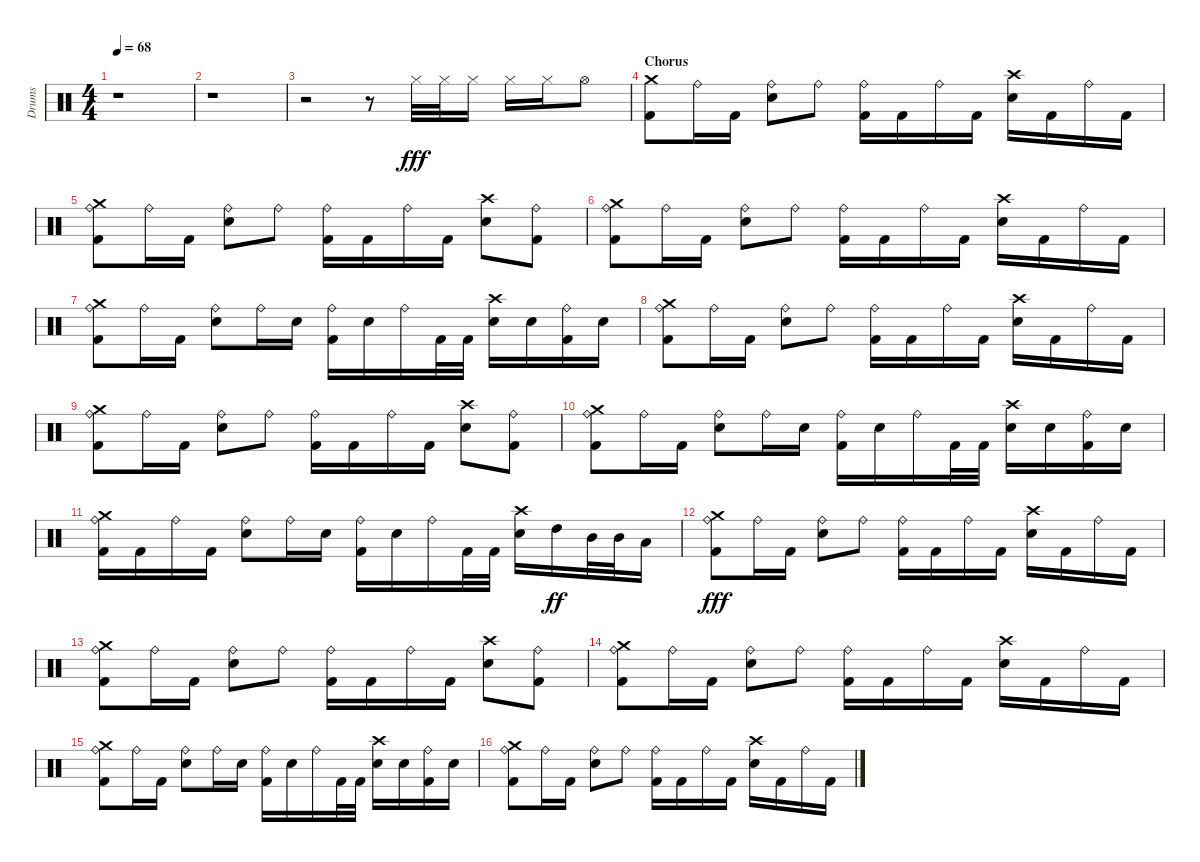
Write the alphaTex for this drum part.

\track ("Drums" "Drums") {instrument percussion}
\staff {score}
\articulation defaults
\ts (4 4)
\tempo 68
\clef neutral
\ks c
r.1{dy fff} |
r.1 |
r.2 r.8 "Hi-Hat (closed)".32 "Hi-Hat (closed)".32 "Hi-Hat (closed)".16 "Hi-Hat (closed)".16 "Hi-Hat (closed)".16 "Hi-Hat (open)".8 |
\section ("" "Chorus")
("Crash medium (hit)" "Kick (hit) 2").8 "Ride (bell)".16 "Kick (hit) 2".16 ("Ride (bell)" "Electric Snare (hit)").8 "Ride (bell)".8 ("Ride (bell)" "Kick (hit) 2").16 "Kick (hit) 2".16 "Ride (bell)".16 "Kick (hit) 2".16 ("Crash high (hit)" "Electric Snare (hit)").16 "Kick (hit) 2".16 "Ride (bell)".16 "Kick (hit) 2".16 |
("Crash medium (hit)" "Ride (bell)" "Kick (hit) 2").8 "Ride (bell)".16 "Kick (hit) 2".16 ("Ride (bell)" "Electric Snare (hit)").8 "Ride (bell)".8 ("Ride (bell)" "Kick (hit) 2").16 "Kick (hit) 2".16 "Ride (bell)".16 "Kick (hit) 2".16 ("Crash high (hit)" "Electric Snare (hit)").8 ("Ride (bell)" "Kick (hit) 2").8 |
("Crash medium (hit)" "Ride (bell)" "Kick (hit) 2").8 "Ride (bell)".16 "Kick (hit) 2".16 ("Ride (bell)" "Electric Snare (hit)").8 "Ride (bell)".8 ("Ride (bell)" "Kick (hit) 2").16 "Kick (hit) 2".16 "Ride (bell)".16 "Kick (hit) 2".16 ("Crash high (hit)" "Electric Snare (hit)").16 "Kick (hit) 2".16 "Ride (bell)".16 "Kick (hit) 2".16 |
("Crash medium (hit)" "Ride (bell)" "Kick (hit) 2").8 "Ride (bell)".16 "Kick (hit) 2".16 ("Ride (bell)" "Electric Snare (hit)").8 "Ride (bell)".16 "Electric Snare (hit)".16 ("Ride (bell)" "Kick (hit) 2").16 "Electric Snare (hit)".16 "Ride (bell)".16 "Kick (hit) 2".32 "Kick (hit) 2".32 ("Crash high (hit)" "Electric Snare (hit)").16 "Electric Snare (hit)".16 ("Ride (bell)" "Kick (hit) 2").16 "Electric Snare (hit)".16 |
("Crash medium (hit)" "Ride (bell)" "Kick (hit) 2").8 "Ride (bell)".16 "Kick (hit) 2".16 ("Ride (bell)" "Electric Snare (hit)").8 "Ride (bell)".8 ("Ride (bell)" "Kick (hit) 2").16 "Kick (hit) 2".16 "Ride (bell)".16 "Kick (hit) 2".16 ("Crash high (hit)" "Electric Snare (hit)").16 "Kick (hit) 2".16 "Ride (bell)".16 "Kick (hit) 2".16 |
("Crash medium (hit)" "Ride (bell)" "Kick (hit) 2").8 "Ride (bell)".16 "Kick (hit) 2".16 ("Ride (bell)" "Electric Snare (hit)").8 "Ride (bell)".8 ("Ride (bell)" "Kick (hit) 2").16 "Kick (hit) 2".16 "Ride (bell)".16 "Kick (hit) 2".16 ("Crash high (hit)" "Electric Snare (hit)").8 ("Ride (bell)" "Kick (hit) 2").8 |
("Crash medium (hit)" "Ride (bell)" "Kick (hit) 2").8 "Ride (bell)".16 "Kick (hit) 2".16 ("Ride (bell)" "Electric Snare (hit)").8 "Ride (bell)".16 "Electric Snare (hit)".16 ("Ride (bell)" "Kick (hit) 2").16 "Electric Snare (hit)".16 "Ride (bell)".16 "Kick (hit) 2".32 "Kick (hit) 2".32 ("Crash high (hit)" "Electric Snare (hit)").16 "Electric Snare (hit)".16 ("Ride (bell)" "Kick (hit) 2").16 "Electric Snare (hit)".16 |
("Crash medium (hit)" "Ride (bell)" "Kick (hit) 2").16 "Kick (hit) 2".16 "Ride (bell)".16 "Kick (hit) 2".16 ("Ride (bell)" "Electric Snare (hit)").8 "Ride (bell)".16 "Electric Snare (hit)".16 ("Ride (bell)" "Kick (hit) 2").16 "Electric Snare (hit)".16 "Ride (bell)".16 "Kick (hit) 2".32 "Kick (hit) 2".32 ("Crash high (hit)" "Electric Snare (hit)").16 "High Tom (hit)".16{dy ff} "Mid Tom (hit)".32 "Mid Tom (hit)".32 "Low Tom (hit)".16 |
("Crash medium (hit)" "Ride (bell)" "Kick (hit) 2").8{dy fff} "Ride (bell)".16 "Kick (hit) 2".16 ("Ride (bell)" "Electric Snare (hit)").8 "Ride (bell)".8 ("Ride (bell)" "Kick (hit) 2").16 "Kick (hit) 2".16 "Ride (bell)".16 "Kick (hit) 2".16 ("Crash high (hit)" "Electric Snare (hit)").16 "Kick (hit) 2".16 "Ride (bell)".16 "Kick (hit) 2".16 |
("Crash medium (hit)" "Ride (bell)" "Kick (hit) 2").8 "Ride (bell)".16 "Kick (hit) 2".16 ("Ride (bell)" "Electric Snare (hit)").8 "Ride (bell)".8 ("Ride (bell)" "Kick (hit) 2").16 "Kick (hit) 2".16 "Ride (bell)".16 "Kick (hit) 2".16 ("Crash high (hit)" "Electric Snare (hit)").8 ("Ride (bell)" "Kick (hit) 2").8 |
("Crash medium (hit)" "Ride (bell)" "Kick (hit) 2").8 "Ride (bell)".16 "Kick (hit) 2".16 ("Ride (bell)" "Electric Snare (hit)").8 "Ride (bell)".8 ("Ride (bell)" "Kick (hit) 2").16 "Kick (hit) 2".16 "Ride (bell)".16 "Kick (hit) 2".16 ("Crash high (hit)" "Electric Snare (hit)").16 "Kick (hit) 2".16 "Ride (bell)".16 "Kick (hit) 2".16 |
("Crash medium (hit)" "Ride (bell)" "Kick (hit) 2").8 "Ride (bell)".16 "Kick (hit) 2".16 ("Ride (bell)" "Electric Snare (hit)").8 "Ride (bell)".16 "Electric Snare (hit)".16 ("Ride (bell)" "Kick (hit) 2").16 "Electric Snare (hit)".16 "Ride (bell)".16 "Kick (hit) 2".32 "Kick (hit) 2".32 ("Crash high (hit)" "Electric Snare (hit)").16 "Electric Snare (hit)".16 ("Ride (bell)" "Kick (hit) 2").16 "Electric Snare (hit)".16 |
("Crash medium (hit)" "Ride (bell)" "Kick (hit) 2").8 "Ride (bell)".16 "Kick (hit) 2".16 ("Ride (bell)" "Electric Snare (hit)").8 "Ride (bell)".8 ("Ride (bell)" "Kick (hit) 2").16 "Kick (hit) 2".16 "Ride (bell)".16 "Kick (hit) 2".16 ("Crash high (hit)" "Electric Snare (hit)").16 "Kick (hit) 2".16 "Ride (bell)".16 "Kick (hit) 2".16
